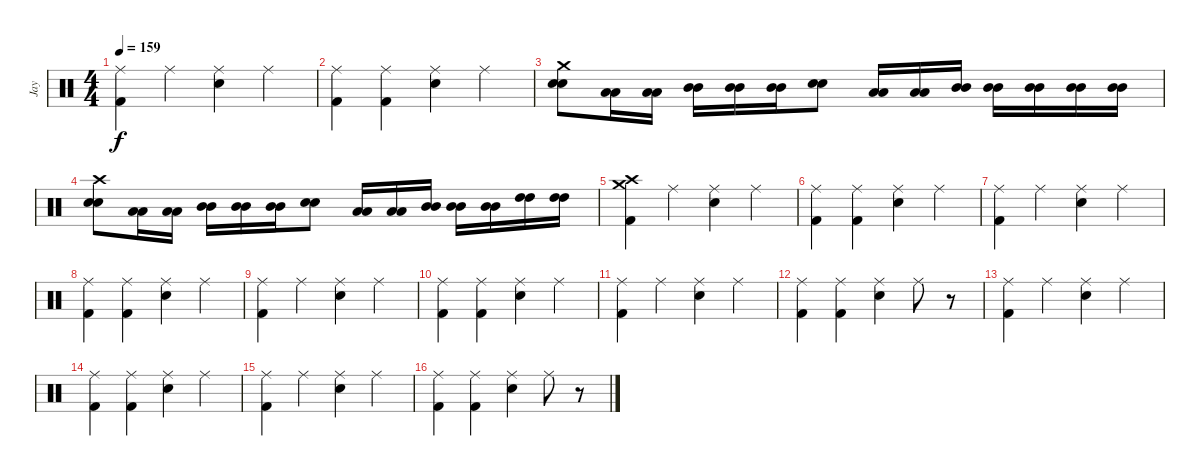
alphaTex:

\track ("Jay" "Jay") {instrument percussion}
\staff {score}
\articulation defaults
\ts (4 4)
\tempo 159
\clef neutral
\ks c
("Ride (middle)" "Kick (hit) 2").4{dy f} "Ride (middle)".4 ("Ride (middle)" "Electric Snare (hit)").4 "Ride (middle)".4 |
("Ride (middle)" "Kick (hit) 2").4 ("Ride (middle)" "Kick (hit) 2").4 ("Ride (middle)" "Electric Snare (hit)").4 "Ride (middle)".4 |
("Crash medium (hit)" "Electric Snare (hit)" "Electric Snare (hit)").8 ("Low Tom (hit)" "Low Tom (hit)").16 ("Low Tom (hit)" "Low Tom (hit)").16 ("Mid Tom (hit)" "Mid Tom (hit)").16 ("Mid Tom (hit)" "Mid Tom (hit)").16 ("Mid Tom (hit)" "Mid Tom (hit)").16 ("Electric Snare (hit)" "Electric Snare (hit)").8 ("Low Tom (hit)" "Low Tom (hit)").16 ("Low Tom (hit)" "Low Tom (hit)").16 ("Mid Tom (hit)" "Mid Tom (hit)").16 ("Mid Tom (hit)" "Mid Tom (hit)").16 ("Mid Tom (hit)" "Mid Tom (hit)").16 ("Mid Tom (hit)" "Mid Tom (hit)").16 ("Mid Tom (hit)" "Mid Tom (hit)").16 |
("Crash high (hit)" "Electric Snare (hit)" "Electric Snare (hit)").8 ("Low Tom (hit)" "Low Tom (hit)").16 ("Low Tom (hit)" "Low Tom (hit)").16 ("Mid Tom (hit)" "Mid Tom (hit)").16 ("Mid Tom (hit)" "Mid Tom (hit)").16 ("Mid Tom (hit)" "Mid Tom (hit)").16 ("Electric Snare (hit)" "Electric Snare (hit)").8 ("Low Tom (hit)" "Low Tom (hit)").16 ("Low Tom (hit)" "Low Tom (hit)").16 ("Mid Tom (hit)" "Mid Tom (hit)").16 ("Mid Tom (hit)" "Mid Tom (hit)").16 ("Mid Tom (hit)" "Mid Tom (hit)").16 ("High Tom (hit)" "High Tom (hit)").16 ("High Tom (hit)" "High Tom (hit)").16 |
("Crash medium (hit)" "Crash high (hit)" "Kick (hit) 2").4 "Ride (middle)".4 ("Ride (middle)" "Electric Snare (hit)").4 "Ride (middle)".4 |
("Ride (middle)" "Kick (hit) 2").4 ("Ride (middle)" "Kick (hit) 2").4 ("Ride (middle)" "Electric Snare (hit)").4 "Ride (middle)".4 |
("Ride (middle)" "Kick (hit) 2").4 "Ride (middle)".4 ("Ride (middle)" "Electric Snare (hit)").4 "Ride (middle)".4 |
("Ride (middle)" "Kick (hit) 2").4 ("Ride (middle)" "Kick (hit) 2").4 ("Ride (middle)" "Electric Snare (hit)").4 "Ride (middle)".4 |
("Ride (middle)" "Kick (hit) 2").4 "Ride (middle)".4 ("Ride (middle)" "Electric Snare (hit)").4 "Ride (middle)".4 |
("Ride (middle)" "Kick (hit) 2").4 ("Ride (middle)" "Kick (hit) 2").4 ("Ride (middle)" "Electric Snare (hit)").4 "Ride (middle)".4 |
("Ride (middle)" "Kick (hit) 2").4 "Ride (middle)".4 ("Ride (middle)" "Electric Snare (hit)").4 "Ride (middle)".4 |
("Ride (middle)" "Kick (hit) 2").4 ("Ride (middle)" "Kick (hit) 2").4 ("Ride (middle)" "Electric Snare (hit)").4 "Ride (middle)".8 r.8 |
("Ride (middle)" "Kick (hit) 2").4 "Ride (middle)".4 ("Ride (middle)" "Electric Snare (hit)").4 "Ride (middle)".4 |
("Ride (middle)" "Kick (hit) 2").4 ("Ride (middle)" "Kick (hit) 2").4 ("Ride (middle)" "Electric Snare (hit)").4 "Ride (middle)".4 |
("Ride (middle)" "Kick (hit) 2").4 "Ride (middle)".4 ("Ride (middle)" "Electric Snare (hit)").4 "Ride (middle)".4 |
("Ride (middle)" "Kick (hit) 2").4 ("Ride (middle)" "Kick (hit) 2").4 ("Ride (middle)" "Electric Snare (hit)").4 "Ride (middle)".8 r.8
